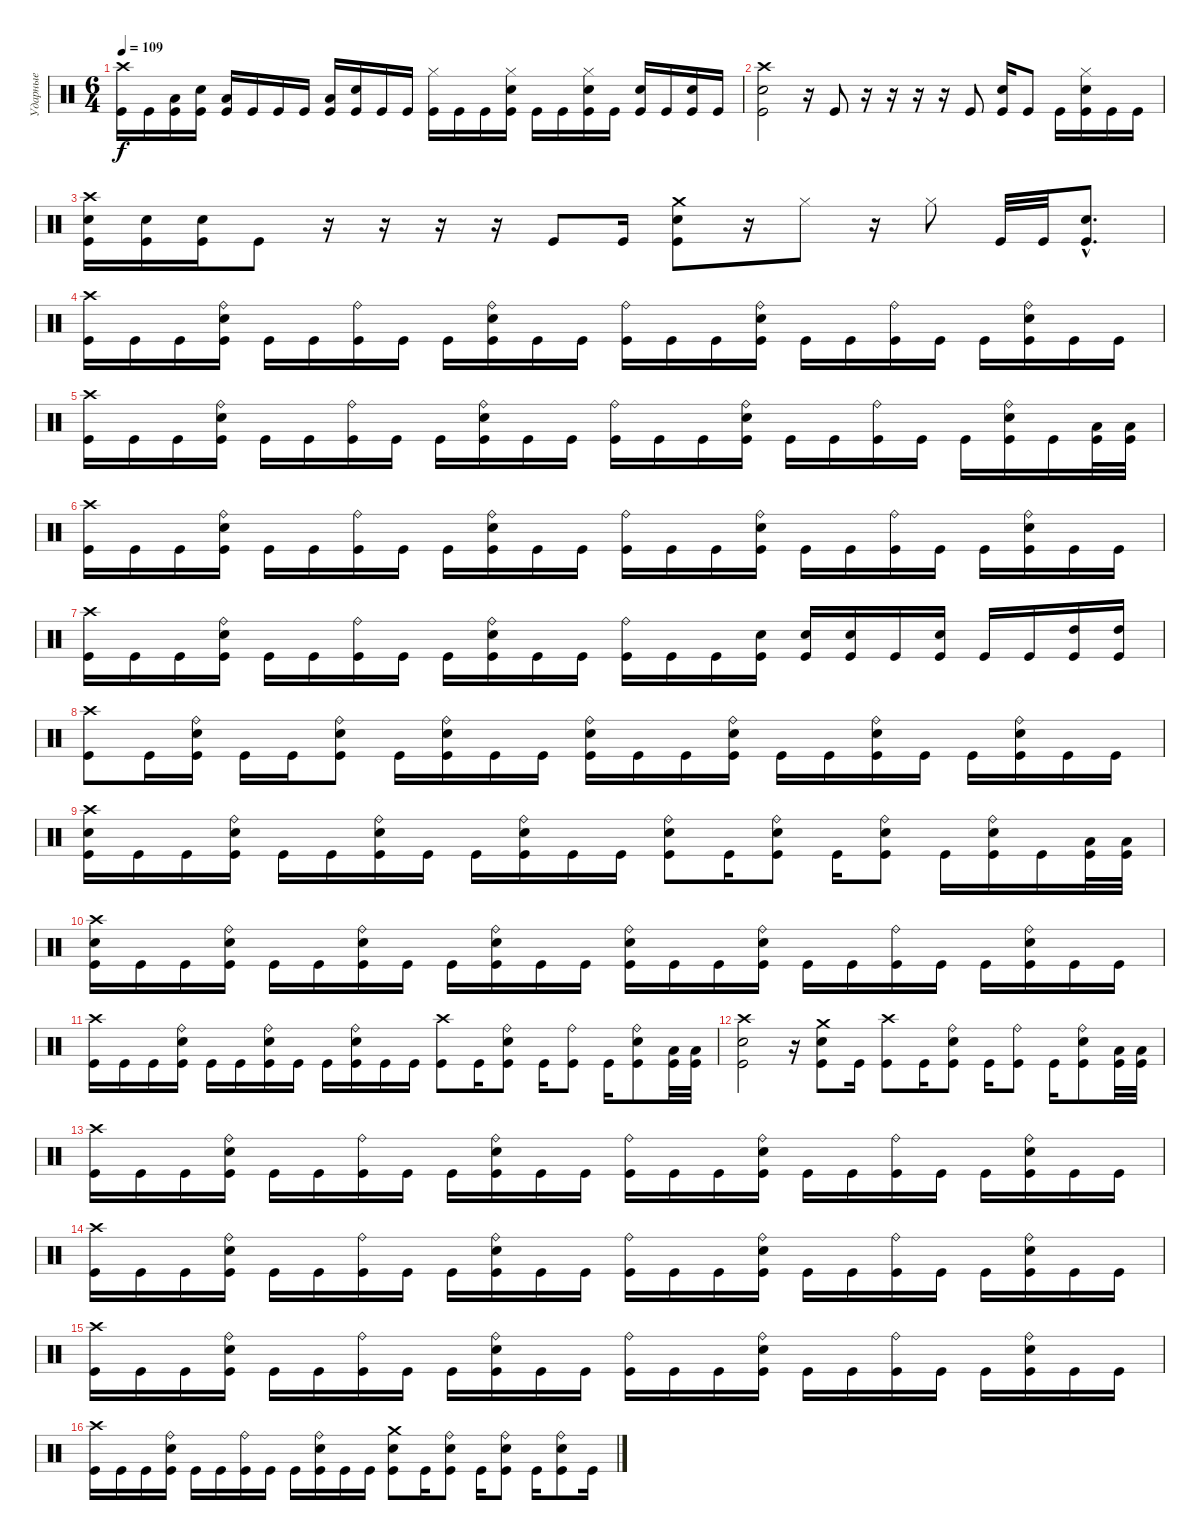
\track ("Ударные" "Ударные") {instrument percussion}
\staff {score}
\articulation defaults
\ts (6 4)
\tempo 109
\clef neutral
\ks c
("Crash high (hit)" "Kick (hit)").16{dy f} "Kick (hit)".16 ("Low Tom (hit)" "Kick (hit)").16 ("Electric Snare (hit)" "Kick (hit)").16 ("Low Tom (hit)" "Kick (hit)").16 "Kick (hit)".16 "Kick (hit)".16 "Kick (hit)".16 ("Low Tom (hit)" "Kick (hit)").16 ("Electric Snare (hit)" "Kick (hit)").16 "Kick (hit)".16 "Kick (hit)".16 ("Hi-Hat (closed)" "Kick (hit)").16 "Kick (hit)".16 "Kick (hit)".16 ("Hi-Hat (closed)" "Electric Snare (hit)" "Kick (hit)").16 "Kick (hit)".16 "Kick (hit)".16 ("Hi-Hat (closed)" "Electric Snare (hit)" "Kick (hit)").16 "Kick (hit)".16 ("Electric Snare (hit)" "Kick (hit)").16 "Kick (hit)".16 ("Electric Snare (hit)" "Kick (hit)").16 "Kick (hit)".16 |
("Crash high (hit)" "Electric Snare (hit)" "Kick (hit)").2 r.16 "Kick (hit)".8 r.16 r.16 r.16 r.16 "Kick (hit)".8 ("Electric Snare (hit)" "Kick (hit)").16 "Kick (hit)".8 "Kick (hit)".16 ("Hi-Hat (closed)" "Electric Snare (hit)" "Kick (hit)").16 "Kick (hit)".16 "Kick (hit)".16 |
("Crash high (hit)" "Electric Snare (hit)" "Kick (hit)").16 ("Electric Snare (hit)" "Kick (hit)").16 ("Electric Snare (hit)" "Kick (hit)").16 "Kick (hit)".8 r.16 r.16 r.16 r.16 "Kick (hit)".8 "Kick (hit)".16 ("Crash medium (hit)" "Electric Snare (hit)" "Kick (hit)").8 r.16 "Hi-Hat (closed)".8 r.16 "Hi-Hat (closed)".8 "Kick (hit)".32 "Kick (hit)".32 ("Electric Snare (hit)"{hac} "Kick (hit)"{hac}).8{d} |
("Crash high (hit)" "Kick (hit)").16 "Kick (hit)".16 "Kick (hit)".16 ("Ride (bell)" "Electric Snare (hit)" "Kick (hit)").16 "Kick (hit)".16 "Kick (hit)".16 ("Ride (bell)" "Kick (hit)").16 "Kick (hit)".16 "Kick (hit)".16 ("Ride (bell)" "Electric Snare (hit)" "Kick (hit)").16 "Kick (hit)".16 "Kick (hit)".16 ("Ride (bell)" "Kick (hit)").16 "Kick (hit)".16 "Kick (hit)".16 ("Ride (bell)" "Electric Snare (hit)" "Kick (hit)").16 "Kick (hit)".16 "Kick (hit)".16 ("Ride (bell)" "Kick (hit)").16 "Kick (hit)".16 "Kick (hit)".16 ("Ride (bell)" "Electric Snare (hit)" "Kick (hit)").16 "Kick (hit)".16 "Kick (hit)".16 |
("Crash high (hit)" "Kick (hit)").16 "Kick (hit)".16 "Kick (hit)".16 ("Ride (bell)" "Electric Snare (hit)" "Kick (hit)").16 "Kick (hit)".16 "Kick (hit)".16 ("Ride (bell)" "Kick (hit)").16 "Kick (hit)".16 "Kick (hit)".16 ("Ride (bell)" "Electric Snare (hit)" "Kick (hit)").16 "Kick (hit)".16 "Kick (hit)".16 ("Ride (bell)" "Kick (hit)").16 "Kick (hit)".16 "Kick (hit)".16 ("Ride (bell)" "Electric Snare (hit)" "Kick (hit)").16 "Kick (hit)".16 "Kick (hit)".16 ("Ride (bell)" "Kick (hit)").16 "Kick (hit)".16 "Kick (hit)".16 ("Ride (bell)" "Electric Snare (hit)" "Kick (hit)").16 "Kick (hit)".16 ("Low Tom (hit)" "Kick (hit)").32 ("Low Tom (hit)" "Kick (hit)").32 |
("Crash high (hit)" "Kick (hit)").16 "Kick (hit)".16 "Kick (hit)".16 ("Ride (bell)" "Electric Snare (hit)" "Kick (hit)").16 "Kick (hit)".16 "Kick (hit)".16 ("Ride (bell)" "Kick (hit)").16 "Kick (hit)".16 "Kick (hit)".16 ("Ride (bell)" "Electric Snare (hit)" "Kick (hit)").16 "Kick (hit)".16 "Kick (hit)".16 ("Ride (bell)" "Kick (hit)").16 "Kick (hit)".16 "Kick (hit)".16 ("Ride (bell)" "Electric Snare (hit)" "Kick (hit)").16 "Kick (hit)".16 "Kick (hit)".16 ("Ride (bell)" "Kick (hit)").16 "Kick (hit)".16 "Kick (hit)".16 ("Ride (bell)" "Electric Snare (hit)" "Kick (hit)").16 "Kick (hit)".16 "Kick (hit)".16 |
("Crash high (hit)" "Kick (hit)").16 "Kick (hit)".16 "Kick (hit)".16 ("Ride (bell)" "Electric Snare (hit)" "Kick (hit)").16 "Kick (hit)".16 "Kick (hit)".16 ("Ride (bell)" "Kick (hit)").16 "Kick (hit)".16 "Kick (hit)".16 ("Ride (bell)" "Electric Snare (hit)" "Kick (hit)").16 "Kick (hit)".16 "Kick (hit)".16 ("Ride (bell)" "Kick (hit)").16 "Kick (hit)".16 "Kick (hit)".16 ("Electric Snare (hit)" "Kick (hit)").16 ("Electric Snare (hit)" "Kick (hit)").16 ("Electric Snare (hit)" "Kick (hit)").16 "Kick (hit)".16 ("Electric Snare (hit)" "Kick (hit)").16 "Kick (hit)".16 "Kick (hit)".16 ("High Tom (hit)" "Kick (hit)").16 ("High Tom (hit)" "Kick (hit)").16 |
("Crash high (hit)" "Kick (hit)").8 "Kick (hit)".16 ("Ride (bell)" "Electric Snare (hit)" "Kick (hit)").16 "Kick (hit)".16 "Kick (hit)".16 ("Ride (bell)" "Electric Snare (hit)" "Kick (hit)").8 "Kick (hit)".16 ("Ride (bell)" "Electric Snare (hit)" "Kick (hit)").16 "Kick (hit)".16 "Kick (hit)".16 ("Ride (bell)" "Electric Snare (hit)" "Kick (hit)").16 "Kick (hit)".16 "Kick (hit)".16 ("Ride (bell)" "Electric Snare (hit)" "Kick (hit)").16 "Kick (hit)".16 "Kick (hit)".16 ("Ride (bell)" "Electric Snare (hit)" "Kick (hit)").16 "Kick (hit)".16 "Kick (hit)".16 ("Ride (bell)" "Electric Snare (hit)" "Kick (hit)").16 "Kick (hit)".16 "Kick (hit)".16 |
("Crash high (hit)" "Electric Snare (hit)" "Kick (hit)").16 "Kick (hit)".16 "Kick (hit)".16 ("Ride (bell)" "Electric Snare (hit)" "Kick (hit)").16 "Kick (hit)".16 "Kick (hit)".16 ("Ride (bell)" "Electric Snare (hit)" "Kick (hit)").16 "Kick (hit)".16 "Kick (hit)".16 ("Ride (bell)" "Electric Snare (hit)" "Kick (hit)").16 "Kick (hit)".16 "Kick (hit)".16 ("Ride (bell)" "Electric Snare (hit)" "Kick (hit)").8 "Kick (hit)".16 ("Ride (bell)" "Electric Snare (hit)" "Kick (hit)").8 "Kick (hit)".16 ("Ride (bell)" "Electric Snare (hit)" "Kick (hit)").8 "Kick (hit)".16 ("Ride (bell)" "Electric Snare (hit)" "Kick (hit)").16 "Kick (hit)".16 ("Low Tom (hit)" "Kick (hit)").32 ("Low Tom (hit)" "Kick (hit)").32 |
("Crash high (hit)" "Electric Snare (hit)" "Kick (hit)").16 "Kick (hit)".16 "Kick (hit)".16 ("Ride (bell)" "Electric Snare (hit)" "Kick (hit)").16 "Kick (hit)".16 "Kick (hit)".16 ("Ride (bell)" "Electric Snare (hit)" "Kick (hit)").16 "Kick (hit)".16 "Kick (hit)".16 ("Ride (bell)" "Electric Snare (hit)" "Kick (hit)").16 "Kick (hit)".16 "Kick (hit)".16 ("Ride (bell)" "Electric Snare (hit)" "Kick (hit)").16 "Kick (hit)".16 "Kick (hit)".16 ("Ride (bell)" "Electric Snare (hit)" "Kick (hit)").16 "Kick (hit)".16 "Kick (hit)".16 ("Ride (bell)" "Kick (hit)").16 "Kick (hit)".16 "Kick (hit)".16 ("Ride (bell)" "Electric Snare (hit)" "Kick (hit)").16 "Kick (hit)".16 "Kick (hit)".16 |
("Crash high (hit)" "Kick (hit)").16 "Kick (hit)".16 "Kick (hit)".16 ("Ride (bell)" "Electric Snare (hit)" "Kick (hit)").16 "Kick (hit)".16 "Kick (hit)".16 ("Ride (bell)" "Electric Snare (hit)" "Kick (hit)").16 "Kick (hit)".16 "Kick (hit)".16 ("Ride (bell)" "Electric Snare (hit)" "Kick (hit)").16 "Kick (hit)".16 "Kick (hit)".16 ("Crash high (hit)" "Kick (hit)").8 "Kick (hit)".16 ("Ride (bell)" "Electric Snare (hit)" "Kick (hit)").8 "Kick (hit)".16 ("Ride (bell)" "Kick (hit)").8 "Kick (hit)".16 ("Ride (bell)" "Electric Snare (hit)" "Kick (hit)").8 ("Low Tom (hit)" "Kick (hit)").32 ("Low Tom (hit)" "Kick (hit)").32 |
("Crash high (hit)" "Electric Snare (hit)" "Kick (hit)").2 r.16 ("Crash medium (hit)" "Electric Snare (hit)" "Kick (hit)").8 "Kick (hit)".16 ("Crash high (hit)" "Kick (hit)").8 "Kick (hit)".16 ("Ride (bell)" "Electric Snare (hit)" "Kick (hit)").8 "Kick (hit)".16 ("Ride (bell)" "Kick (hit)").8 "Kick (hit)".16 ("Ride (bell)" "Electric Snare (hit)" "Kick (hit)").8 ("Low Tom (hit)" "Kick (hit)").32 ("Low Tom (hit)" "Kick (hit)").32 |
("Crash high (hit)" "Kick (hit)").16 "Kick (hit)".16 "Kick (hit)".16 ("Ride (bell)" "Electric Snare (hit)" "Kick (hit)").16 "Kick (hit)".16 "Kick (hit)".16 ("Ride (bell)" "Kick (hit)").16 "Kick (hit)".16 "Kick (hit)".16 ("Ride (bell)" "Electric Snare (hit)" "Kick (hit)").16 "Kick (hit)".16 "Kick (hit)".16 ("Ride (bell)" "Kick (hit)").16 "Kick (hit)".16 "Kick (hit)".16 ("Ride (bell)" "Electric Snare (hit)" "Kick (hit)").16 "Kick (hit)".16 "Kick (hit)".16 ("Ride (bell)" "Kick (hit)").16 "Kick (hit)".16 "Kick (hit)".16 ("Ride (bell)" "Electric Snare (hit)" "Kick (hit)").16 "Kick (hit)".16 "Kick (hit)".16 |
("Crash high (hit)" "Kick (hit)").16 "Kick (hit)".16 "Kick (hit)".16 ("Ride (bell)" "Electric Snare (hit)" "Kick (hit)").16 "Kick (hit)".16 "Kick (hit)".16 ("Ride (bell)" "Kick (hit)").16 "Kick (hit)".16 "Kick (hit)".16 ("Ride (bell)" "Electric Snare (hit)" "Kick (hit)").16 "Kick (hit)".16 "Kick (hit)".16 ("Ride (bell)" "Kick (hit)").16 "Kick (hit)".16 "Kick (hit)".16 ("Ride (bell)" "Electric Snare (hit)" "Kick (hit)").16 "Kick (hit)".16 "Kick (hit)".16 ("Ride (bell)" "Kick (hit)").16 "Kick (hit)".16 "Kick (hit)".16 ("Ride (bell)" "Electric Snare (hit)" "Kick (hit)").16 "Kick (hit)".16 "Kick (hit)".16 |
("Crash high (hit)" "Kick (hit)").16 "Kick (hit)".16 "Kick (hit)".16 ("Ride (bell)" "Electric Snare (hit)" "Kick (hit)").16 "Kick (hit)".16 "Kick (hit)".16 ("Ride (bell)" "Kick (hit)").16 "Kick (hit)".16 "Kick (hit)".16 ("Ride (bell)" "Electric Snare (hit)" "Kick (hit)").16 "Kick (hit)".16 "Kick (hit)".16 ("Ride (bell)" "Kick (hit)").16 "Kick (hit)".16 "Kick (hit)".16 ("Ride (bell)" "Electric Snare (hit)" "Kick (hit)").16 "Kick (hit)".16 "Kick (hit)".16 ("Ride (bell)" "Kick (hit)").16 "Kick (hit)".16 "Kick (hit)".16 ("Ride (bell)" "Electric Snare (hit)" "Kick (hit)").16 "Kick (hit)".16 "Kick (hit)".16 |
("Crash high (hit)" "Kick (hit)").16 "Kick (hit)".16 "Kick (hit)".16 ("Ride (bell)" "Electric Snare (hit)" "Kick (hit)").16 "Kick (hit)".16 "Kick (hit)".16 ("Ride (bell)" "Kick (hit)").16 "Kick (hit)".16 "Kick (hit)".16 ("Ride (bell)" "Electric Snare (hit)" "Kick (hit)").16 "Kick (hit)".16 "Kick (hit)".16 ("Crash medium (hit)" "Electric Snare (hit)" "Kick (hit)").8 "Kick (hit)".16 ("Ride (bell)" "Electric Snare (hit)" "Kick (hit)").8 "Kick (hit)".16 ("Ride (bell)" "Electric Snare (hit)" "Kick (hit)").8 "Kick (hit)".16 ("Ride (bell)" "Electric Snare (hit)" "Kick (hit)").8 "Kick (hit)".16
